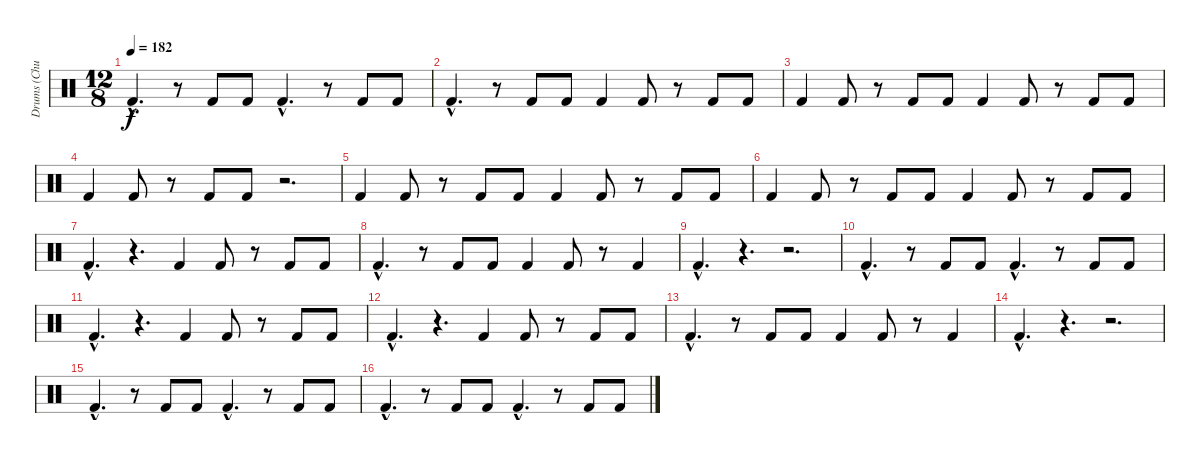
\track ("Drums (Chuck Behler)" "Drums (Chu") {instrument percussion}
\staff {score}
\articulation defaults
\ts (12 8)
\tempo 182
\clef neutral
\ks c "Kick (hit) 2"{hac}.4{d dy f}
r.8 "Kick (hit) 2".8 "Kick (hit) 2".8 "Kick (hit) 2"{hac}.4{d} r.8 "Kick (hit) 2".8 "Kick (hit) 2".8 |
"Kick (hit) 2"{hac}.4{d} r.8 "Kick (hit) 2".8 "Kick (hit) 2".8 "Kick (hit) 2".4 "Kick (hit) 2".8 r.8 "Kick (hit) 2".8 "Kick (hit) 2".8 |
"Kick (hit) 2".4 "Kick (hit) 2".8 r.8 "Kick (hit) 2".8 "Kick (hit) 2".8 "Kick (hit) 2".4 "Kick (hit) 2".8 r.8 "Kick (hit) 2".8 "Kick (hit) 2".8 |
"Kick (hit) 2".4 "Kick (hit) 2".8 r.8 "Kick (hit) 2".8 "Kick (hit) 2".8 r.2{d} |
"Kick (hit) 2".4 "Kick (hit) 2".8 r.8 "Kick (hit) 2".8 "Kick (hit) 2".8 "Kick (hit) 2".4 "Kick (hit) 2".8 r.8 "Kick (hit) 2".8 "Kick (hit) 2".8 |
"Kick (hit) 2".4 "Kick (hit) 2".8 r.8 "Kick (hit) 2".8 "Kick (hit) 2".8 "Kick (hit) 2".4 "Kick (hit) 2".8 r.8 "Kick (hit) 2".8 "Kick (hit) 2".8 |
"Kick (hit) 2"{hac}.4{d} r.4{d} "Kick (hit) 2".4 "Kick (hit) 2".8 r.8 "Kick (hit) 2".8 "Kick (hit) 2".8 |
"Kick (hit) 2"{hac}.4{d} r.8 "Kick (hit) 2".8 "Kick (hit) 2".8 "Kick (hit) 2".4 "Kick (hit) 2".8 r.8 "Kick (hit) 2".4 |
"Kick (hit) 2"{hac}.4{d} r.4{d} r.2{d} |
"Kick (hit) 2"{hac}.4{d} r.8 "Kick (hit) 2".8 "Kick (hit) 2".8 "Kick (hit) 2"{hac}.4{d} r.8 "Kick (hit) 2".8 "Kick (hit) 2".8 |
"Kick (hit) 2"{hac}.4{d} r.4{d} "Kick (hit) 2".4 "Kick (hit) 2".8 r.8 "Kick (hit) 2".8 "Kick (hit) 2".8 |
"Kick (hit) 2"{hac}.4{d} r.4{d} "Kick (hit) 2".4 "Kick (hit) 2".8 r.8 "Kick (hit) 2".8 "Kick (hit) 2".8 |
"Kick (hit) 2"{hac}.4{d} r.8 "Kick (hit) 2".8 "Kick (hit) 2".8 "Kick (hit) 2".4 "Kick (hit) 2".8 r.8 "Kick (hit) 2".4 |
"Kick (hit) 2"{hac}.4{d} r.4{d} r.2{d} |
"Kick (hit) 2"{hac}.4{d} r.8 "Kick (hit) 2".8 "Kick (hit) 2".8 "Kick (hit) 2"{hac}.4{d} r.8 "Kick (hit) 2".8 "Kick (hit) 2".8 |
"Kick (hit) 2"{hac}.4{d} r.8 "Kick (hit) 2".8 "Kick (hit) 2".8 "Kick (hit) 2"{hac}.4{d} r.8 "Kick (hit) 2".8 "Kick (hit) 2".8
